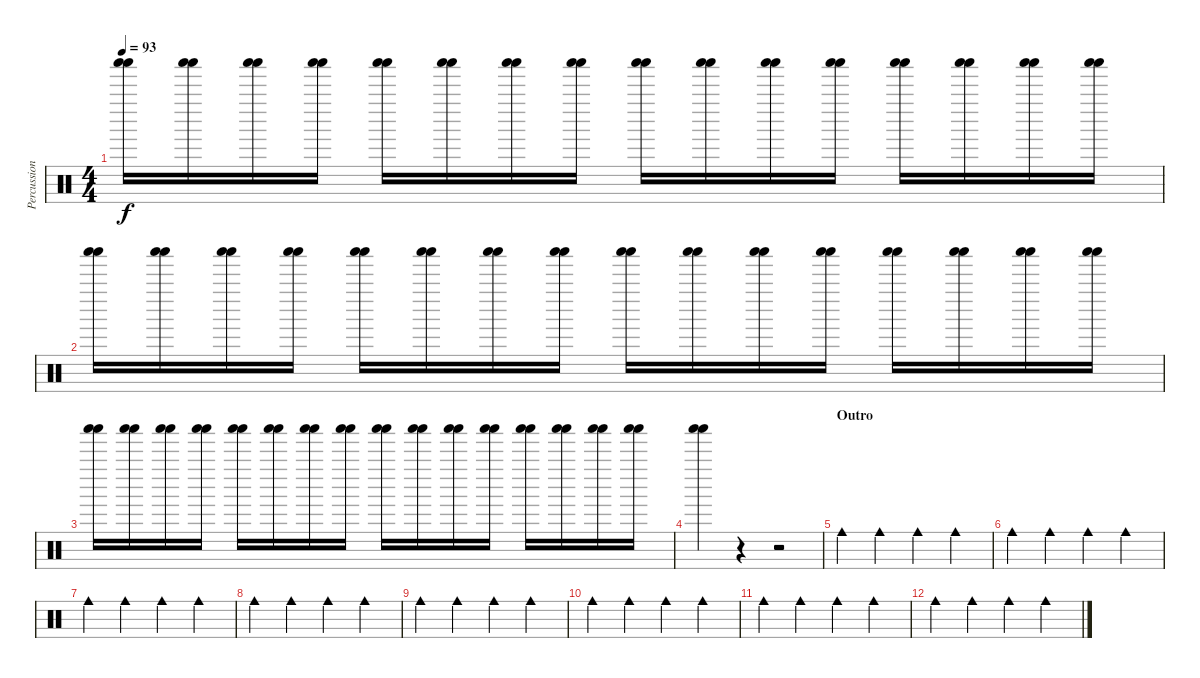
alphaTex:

\track ("Percussions" "Percussion") {instrument percussion}
\staff {score}
\articulation defaults
\ts (4 4)
\tempo 93
\clef neutral
\ks c
("Shaker (hit)" "Shaker (hit)").16{dy f} ("Shaker (hit)" "Shaker (hit)").16 ("Shaker (hit)" "Shaker (hit)").16 ("Shaker (hit)" "Shaker (hit)").16 ("Shaker (hit)" "Shaker (hit)").16 ("Shaker (hit)" "Shaker (hit)").16 ("Shaker (hit)" "Shaker (hit)").16 ("Shaker (hit)" "Shaker (hit)").16 ("Shaker (hit)" "Shaker (hit)").16 ("Shaker (hit)" "Shaker (hit)").16 ("Shaker (hit)" "Shaker (hit)").16 ("Shaker (hit)" "Shaker (hit)").16 ("Shaker (hit)" "Shaker (hit)").16 ("Shaker (hit)" "Shaker (hit)").16 ("Shaker (hit)" "Shaker (hit)").16 ("Shaker (hit)" "Shaker (hit)").16 |
("Shaker (hit)" "Shaker (hit)").16 ("Shaker (hit)" "Shaker (hit)").16 ("Shaker (hit)" "Shaker (hit)").16 ("Shaker (hit)" "Shaker (hit)").16 ("Shaker (hit)" "Shaker (hit)").16 ("Shaker (hit)" "Shaker (hit)").16 ("Shaker (hit)" "Shaker (hit)").16 ("Shaker (hit)" "Shaker (hit)").16 ("Shaker (hit)" "Shaker (hit)").16 ("Shaker (hit)" "Shaker (hit)").16 ("Shaker (hit)" "Shaker (hit)").16 ("Shaker (hit)" "Shaker (hit)").16 ("Shaker (hit)" "Shaker (hit)").16 ("Shaker (hit)" "Shaker (hit)").16 ("Shaker (hit)" "Shaker (hit)").16 ("Shaker (hit)" "Shaker (hit)").16 |
("Shaker (hit)" "Shaker (hit)").16 ("Shaker (hit)" "Shaker (hit)").16 ("Shaker (hit)" "Shaker (hit)").16 ("Shaker (hit)" "Shaker (hit)").16 ("Shaker (hit)" "Shaker (hit)").16 ("Shaker (hit)" "Shaker (hit)").16 ("Shaker (hit)" "Shaker (hit)").16 ("Shaker (hit)" "Shaker (hit)").16 ("Shaker (hit)" "Shaker (hit)").16 ("Shaker (hit)" "Shaker (hit)").16 ("Shaker (hit)" "Shaker (hit)").16 ("Shaker (hit)" "Shaker (hit)").16 ("Shaker (hit)" "Shaker (hit)").16 ("Shaker (hit)" "Shaker (hit)").16 ("Shaker (hit)" "Shaker (hit)").16 ("Shaker (hit)" "Shaker (hit)").16 |
("Shaker (hit)" "Shaker (hit)").4 r.4 r.2 |
\section ("" "Outro")
"Cowbell medium (hit)".4 "Cowbell medium (hit)".4 "Cowbell medium (hit)".4 "Cowbell medium (hit)".4 |
"Cowbell medium (hit)".4 "Cowbell medium (hit)".4 "Cowbell medium (hit)".4 "Cowbell medium (hit)".4 |
"Cowbell medium (hit)".4 "Cowbell medium (hit)".4 "Cowbell medium (hit)".4 "Cowbell medium (hit)".4 |
"Cowbell medium (hit)".4 "Cowbell medium (hit)".4 "Cowbell medium (hit)".4 "Cowbell medium (hit)".4 |
"Cowbell medium (hit)".4 "Cowbell medium (hit)".4 "Cowbell medium (hit)".4 "Cowbell medium (hit)".4 |
"Cowbell medium (hit)".4 "Cowbell medium (hit)".4 "Cowbell medium (hit)".4 "Cowbell medium (hit)".4 |
"Cowbell medium (hit)".4 "Cowbell medium (hit)".4 "Cowbell medium (hit)".4 "Cowbell medium (hit)".4 |
"Cowbell medium (hit)".4 "Cowbell medium (hit)".4 "Cowbell medium (hit)".4 "Cowbell medium (hit)".4
